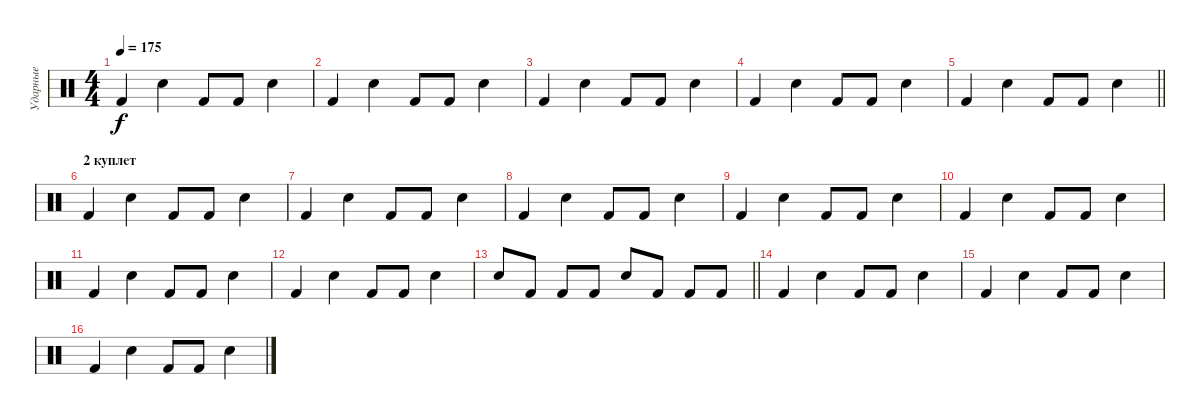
\track ("Ударные" "Ударные") {instrument percussion}
\staff {score}
\articulation defaults
\ts (4 4)
\tempo 175
\clef neutral
\ks c "Kick (hit) 2".4{dy f} "Electric Snare (hit)".4 "Kick (hit) 2".8 "Kick (hit) 2".8 "Electric Snare (hit)".4
|
"Kick (hit) 2".4 "Electric Snare (hit)".4 "Kick (hit) 2".8 "Kick (hit) 2".8 "Electric Snare (hit)".4 |
"Kick (hit) 2".4 "Electric Snare (hit)".4 "Kick (hit) 2".8 "Kick (hit) 2".8 "Electric Snare (hit)".4 |
"Kick (hit) 2".4 "Electric Snare (hit)".4 "Kick (hit) 2".8 "Kick (hit) 2".8 "Electric Snare (hit)".4 |
\barLineRight lightlight "Kick (hit) 2".4 "Electric Snare (hit)".4 "Kick (hit) 2".8 "Kick (hit) 2".8 "Electric Snare (hit)".4
|
\section ("" "2 куплет")
"Kick (hit) 2".4 "Electric Snare (hit)".4 "Kick (hit) 2".8 "Kick (hit) 2".8 "Electric Snare (hit)".4 |
"Kick (hit) 2".4 "Electric Snare (hit)".4 "Kick (hit) 2".8 "Kick (hit) 2".8 "Electric Snare (hit)".4 |
"Kick (hit) 2".4 "Electric Snare (hit)".4 "Kick (hit) 2".8 "Kick (hit) 2".8 "Electric Snare (hit)".4 |
"Kick (hit) 2".4 "Electric Snare (hit)".4 "Kick (hit) 2".8 "Kick (hit) 2".8 "Electric Snare (hit)".4 |
"Kick (hit) 2".4 "Electric Snare (hit)".4 "Kick (hit) 2".8 "Kick (hit) 2".8 "Electric Snare (hit)".4 |
"Kick (hit) 2".4 "Electric Snare (hit)".4 "Kick (hit) 2".8 "Kick (hit) 2".8 "Electric Snare (hit)".4 |
"Kick (hit) 2".4 "Electric Snare (hit)".4 "Kick (hit) 2".8 "Kick (hit) 2".8 "Electric Snare (hit)".4 |
\barLineRight lightlight "Electric Snare (hit)".8 "Kick (hit) 2".8 "Kick (hit) 2".8 "Kick (hit) 2".8 "Electric Snare (hit)".8 "Kick (hit) 2".8 "Kick (hit) 2".8 "Kick (hit) 2".8
|
"Kick (hit) 2".4 "Electric Snare (hit)".4 "Kick (hit) 2".8 "Kick (hit) 2".8 "Electric Snare (hit)".4 |
"Kick (hit) 2".4 "Electric Snare (hit)".4 "Kick (hit) 2".8 "Kick (hit) 2".8 "Electric Snare (hit)".4 |
"Kick (hit) 2".4 "Electric Snare (hit)".4 "Kick (hit) 2".8 "Kick (hit) 2".8 "Electric Snare (hit)".4
